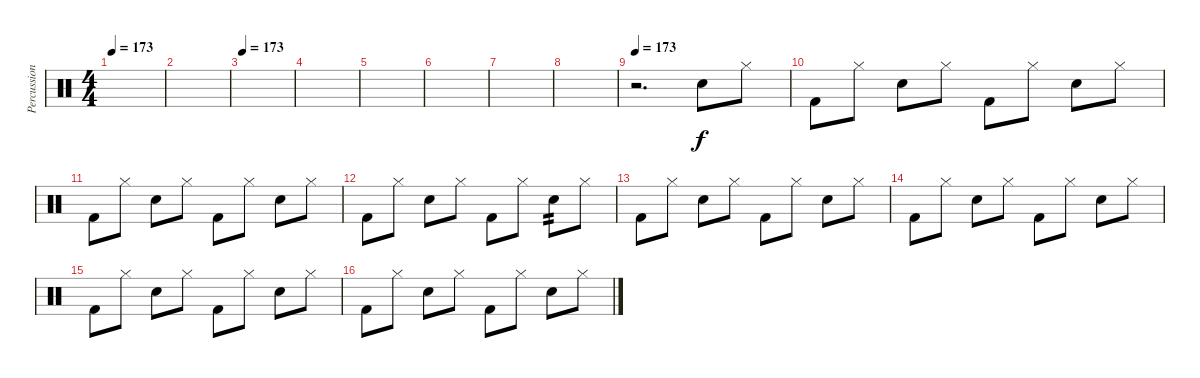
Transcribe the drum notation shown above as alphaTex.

\track ("Percussions" "Percussion") {instrument percussion}
\staff {score}
\articulation defaults
\ts (4 4)
\tempo 173
\clef neutral
\ks c
|
|
\tempo 173
|
|
|
|
|
|
\tempo 173
r.2{d volume 0} "Electric Snare (hit)".8{volume 13} "Hi-Hat (closed)".8 |
"Kick (hit) 2".8 "Hi-Hat (closed)".8 "Electric Snare (hit)".8 "Hi-Hat (closed)".8 "Kick (hit) 2".8 "Hi-Hat (closed)".8 "Electric Snare (hit)".8 "Hi-Hat (closed)".8 |
"Kick (hit) 2".8 "Hi-Hat (closed)".8 "Electric Snare (hit)".8 "Hi-Hat (closed)".8 "Kick (hit) 2".8 "Hi-Hat (closed)".8 "Electric Snare (hit)".8 "Hi-Hat (closed)".8 |
"Kick (hit) 2".8 "Hi-Hat (closed)".8 "Electric Snare (hit)".8 "Hi-Hat (closed)".8 "Kick (hit) 2".8 "Hi-Hat (closed)".8 "Electric Snare (hit)".8{tp 2} "Hi-Hat (closed)".8 |
"Kick (hit) 2".8 "Hi-Hat (closed)".8 "Electric Snare (hit)".8 "Hi-Hat (closed)".8 "Kick (hit) 2".8 "Hi-Hat (closed)".8 "Electric Snare (hit)".8 "Hi-Hat (closed)".8 |
"Kick (hit) 2".8 "Hi-Hat (closed)".8 "Electric Snare (hit)".8 "Hi-Hat (closed)".8 "Kick (hit) 2".8 "Hi-Hat (closed)".8 "Electric Snare (hit)".8 "Hi-Hat (closed)".8 |
"Kick (hit) 2".8 "Hi-Hat (closed)".8 "Electric Snare (hit)".8 "Hi-Hat (closed)".8 "Kick (hit) 2".8 "Hi-Hat (closed)".8 "Electric Snare (hit)".8 "Hi-Hat (closed)".8 |
"Kick (hit) 2".8 "Hi-Hat (closed)".8 "Electric Snare (hit)".8 "Hi-Hat (closed)".8 "Kick (hit) 2".8 "Hi-Hat (closed)".8 "Electric Snare (hit)".8 "Hi-Hat (closed)".8
